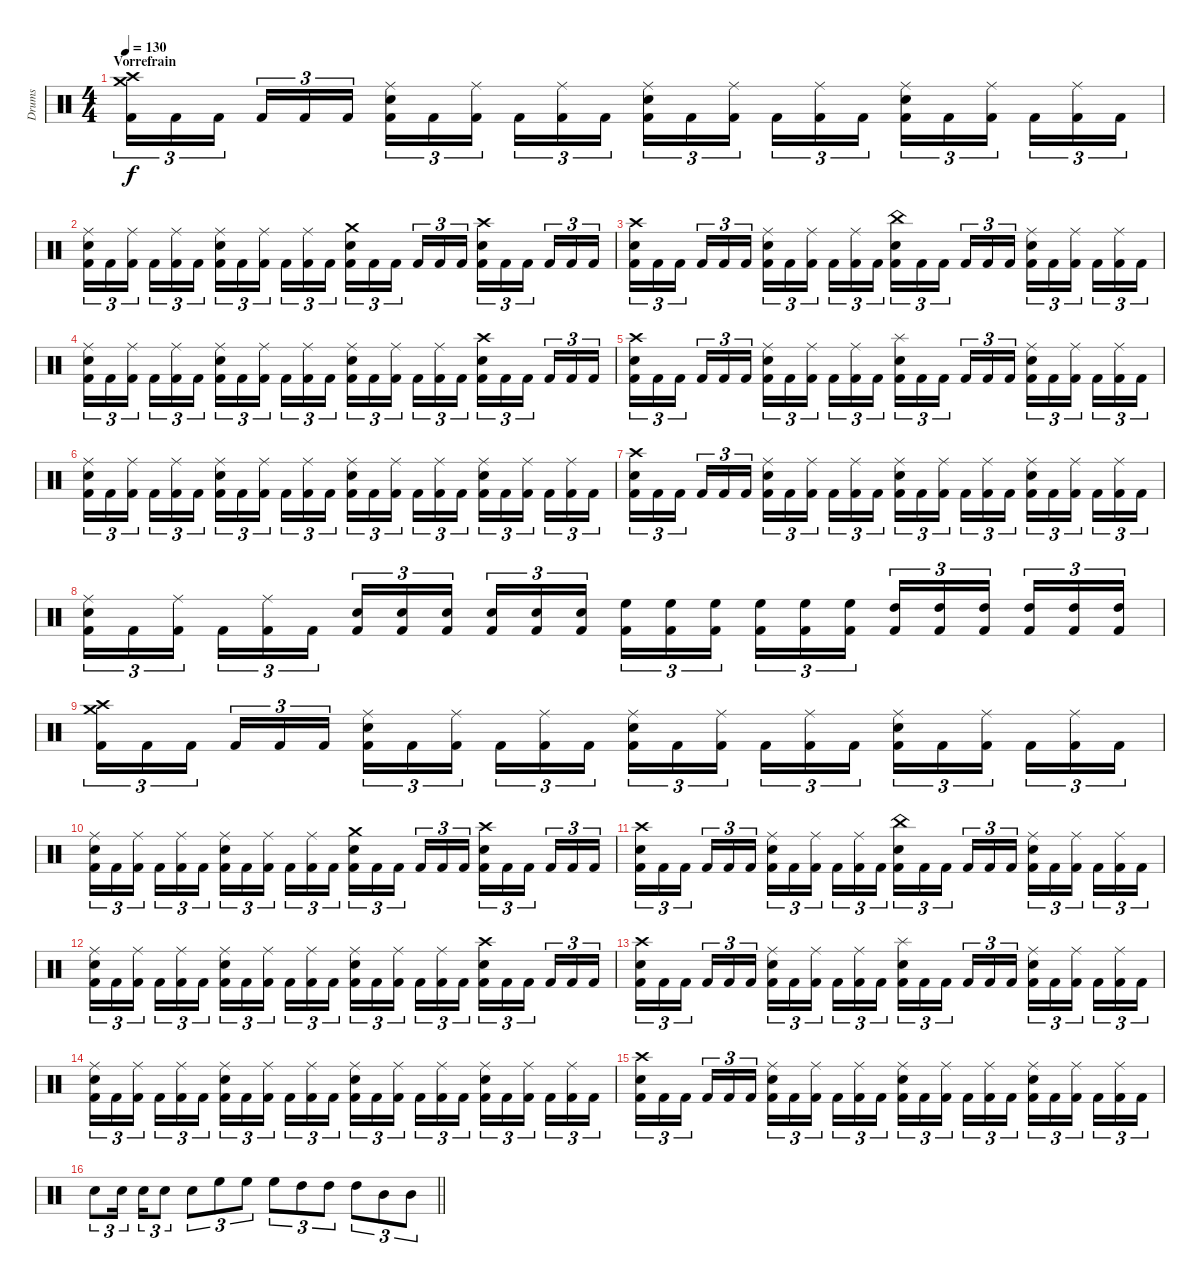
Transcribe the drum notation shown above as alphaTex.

\track ("Drums" "Drums") {instrument percussion}
\staff {score}
\articulation defaults
\ts (4 4)
\section ("" "Vorrefrain")
\tempo 130
\clef neutral
\ks c
("Crash medium (hit)" "Crash high (hit)" "Kick (hit) 2").16{tu (3 2) dy f} "Kick (hit) 2".16{tu (3 2)} "Kick (hit) 2".16{tu (3 2) beam splitsecondary} "Kick (hit) 2".16{tu (3 2)} "Kick (hit) 2".16{tu (3 2)} "Kick (hit) 2".16{tu (3 2)} ("Ride (middle)" "Electric Snare (hit)" "Kick (hit) 2").16{tu (3 2)} "Kick (hit) 2".16{tu (3 2)} ("Ride (middle)" "Kick (hit) 2").16{tu (3 2) beam splitsecondary} "Kick (hit) 2".16{tu (3 2)} ("Ride (middle)" "Kick (hit) 2").16{tu (3 2)} "Kick (hit) 2".16{tu (3 2)} ("Ride (middle)" "Electric Snare (hit)" "Kick (hit) 2").16{tu (3 2)} "Kick (hit) 2".16{tu (3 2)} ("Ride (middle)" "Kick (hit) 2").16{tu (3 2) beam splitsecondary} "Kick (hit) 2".16{tu (3 2)} ("Ride (middle)" "Kick (hit) 2").16{tu (3 2)} "Kick (hit) 2".16{tu (3 2)} ("Ride (middle)" "Electric Snare (hit)" "Kick (hit) 2").16{tu (3 2)} "Kick (hit) 2".16{tu (3 2)} ("Ride (middle)" "Kick (hit) 2").16{tu (3 2) beam splitsecondary} "Kick (hit) 2".16{tu (3 2)} ("Ride (middle)" "Kick (hit) 2").16{tu (3 2)} "Kick (hit) 2".16{tu (3 2)} |
("Ride (middle)" "Electric Snare (hit)" "Kick (hit) 2").16{tu (3 2)} "Kick (hit) 2".16{tu (3 2)} ("Ride (middle)" "Kick (hit) 2").16{tu (3 2) beam splitsecondary} "Kick (hit) 2".16{tu (3 2)} ("Ride (middle)" "Kick (hit) 2").16{tu (3 2)} "Kick (hit) 2".16{tu (3 2)} ("Ride (middle)" "Electric Snare (hit)" "Kick (hit) 2").16{tu (3 2)} "Kick (hit) 2".16{tu (3 2)} ("Ride (middle)" "Kick (hit) 2").16{tu (3 2) beam splitsecondary} "Kick (hit) 2".16{tu (3 2)} ("Ride (middle)" "Kick (hit) 2").16{tu (3 2)} "Kick (hit) 2".16{tu (3 2)} ("Crash medium (hit)" "Electric Snare (hit)" "Kick (hit) 2").16{tu (3 2)} "Kick (hit) 2".16{tu (3 2)} "Kick (hit) 2".16{tu (3 2) beam splitsecondary} "Kick (hit) 2".16{tu (3 2)} "Kick (hit) 2".16{tu (3 2)} "Kick (hit) 2".16{tu (3 2)} ("Crash high (hit)" "Electric Snare (hit)" "Kick (hit) 2").16{tu (3 2)} "Kick (hit) 2".16{tu (3 2)} "Kick (hit) 2".16{tu (3 2) beam splitsecondary} "Kick (hit) 2".16{tu (3 2)} "Kick (hit) 2".16{tu (3 2)} "Kick (hit) 2".16{tu (3 2)} |
("Crash high (hit)" "Electric Snare (hit)" "Kick (hit) 2").16{tu (3 2)} "Kick (hit) 2".16{tu (3 2)} "Kick (hit) 2".16{tu (3 2) beam splitsecondary} "Kick (hit) 2".16{tu (3 2)} "Kick (hit) 2".16{tu (3 2)} "Kick (hit) 2".16{tu (3 2)} ("Ride (middle)" "Electric Snare (hit)" "Kick (hit) 2").16{tu (3 2)} "Kick (hit) 2".16{tu (3 2)} ("Ride (middle)" "Kick (hit) 2").16{tu (3 2) beam splitsecondary} "Kick (hit) 2".16{tu (3 2)} ("Ride (middle)" "Kick (hit) 2").16{tu (3 2)} "Kick (hit) 2".16{tu (3 2)} ("China (hit)" "Electric Snare (hit)" "Kick (hit) 2").16{tu (3 2)} "Kick (hit) 2".16{tu (3 2)} "Kick (hit) 2".16{tu (3 2) beam splitsecondary} "Kick (hit) 2".16{tu (3 2)} "Kick (hit) 2".16{tu (3 2)} "Kick (hit) 2".16{tu (3 2)} ("Ride (middle)" "Electric Snare (hit)" "Kick (hit) 2").16{tu (3 2)} "Kick (hit) 2".16{tu (3 2)} ("Ride (middle)" "Kick (hit) 2").16{tu (3 2) beam splitsecondary} "Kick (hit) 2".16{tu (3 2)} ("Ride (middle)" "Kick (hit) 2").16{tu (3 2)} "Kick (hit) 2".16{tu (3 2)} |
("Ride (middle)" "Electric Snare (hit)" "Kick (hit) 2").16{tu (3 2)} "Kick (hit) 2".16{tu (3 2)} ("Ride (middle)" "Kick (hit) 2").16{tu (3 2) beam splitsecondary} "Kick (hit) 2".16{tu (3 2)} ("Ride (middle)" "Kick (hit) 2").16{tu (3 2)} "Kick (hit) 2".16{tu (3 2)} ("Ride (middle)" "Electric Snare (hit)" "Kick (hit) 2").16{tu (3 2)} "Kick (hit) 2".16{tu (3 2)} ("Ride (middle)" "Kick (hit) 2").16{tu (3 2) beam splitsecondary} "Kick (hit) 2".16{tu (3 2)} ("Ride (middle)" "Kick (hit) 2").16{tu (3 2)} "Kick (hit) 2".16{tu (3 2)} ("Ride (middle)" "Electric Snare (hit)" "Kick (hit) 2").16{tu (3 2)} "Kick (hit) 2".16{tu (3 2)} ("Ride (middle)" "Kick (hit) 2").16{tu (3 2) beam splitsecondary} "Kick (hit) 2".16{tu (3 2)} ("Ride (middle)" "Kick (hit) 2").16{tu (3 2)} "Kick (hit) 2".16{tu (3 2)} ("Crash high (hit)" "Electric Snare (hit)" "Kick (hit) 2").16{tu (3 2)} "Kick (hit) 2".16{tu (3 2)} "Kick (hit) 2".16{tu (3 2) beam splitsecondary} "Kick (hit) 2".16{tu (3 2)} "Kick (hit) 2".16{tu (3 2)} "Kick (hit) 2".16{tu (3 2)} |
("Crash high (hit)" "Electric Snare (hit)" "Kick (hit) 2").16{tu (3 2)} "Kick (hit) 2".16{tu (3 2)} "Kick (hit) 2".16{tu (3 2) beam splitsecondary} "Kick (hit) 2".16{tu (3 2)} "Kick (hit) 2".16{tu (3 2)} "Kick (hit) 2".16{tu (3 2)} ("Ride (middle)" "Electric Snare (hit)" "Kick (hit) 2").16{tu (3 2)} "Kick (hit) 2".16{tu (3 2)} ("Ride (middle)" "Kick (hit) 2").16{tu (3 2) beam splitsecondary} "Kick (hit) 2".16{tu (3 2)} ("Ride (middle)" "Kick (hit) 2").16{tu (3 2)} "Kick (hit) 2".16{tu (3 2)} ("Splash (hit)" "Electric Snare (hit)" "Kick (hit) 2").16{tu (3 2)} "Kick (hit) 2".16{tu (3 2)} "Kick (hit) 2".16{tu (3 2) beam splitsecondary} "Kick (hit) 2".16{tu (3 2)} "Kick (hit) 2".16{tu (3 2)} "Kick (hit) 2".16{tu (3 2)} ("Ride (middle)" "Electric Snare (hit)" "Kick (hit) 2").16{tu (3 2)} "Kick (hit) 2".16{tu (3 2)} ("Ride (middle)" "Kick (hit) 2").16{tu (3 2) beam splitsecondary} "Kick (hit) 2".16{tu (3 2)} ("Ride (middle)" "Kick (hit) 2").16{tu (3 2)} "Kick (hit) 2".16{tu (3 2)} |
("Ride (middle)" "Electric Snare (hit)" "Kick (hit) 2").16{tu (3 2)} "Kick (hit) 2".16{tu (3 2)} ("Ride (middle)" "Kick (hit) 2").16{tu (3 2) beam splitsecondary} "Kick (hit) 2".16{tu (3 2)} ("Ride (middle)" "Kick (hit) 2").16{tu (3 2)} "Kick (hit) 2".16{tu (3 2)} ("Ride (middle)" "Electric Snare (hit)" "Kick (hit) 2").16{tu (3 2)} "Kick (hit) 2".16{tu (3 2)} ("Ride (middle)" "Kick (hit) 2").16{tu (3 2) beam splitsecondary} "Kick (hit) 2".16{tu (3 2)} ("Ride (middle)" "Kick (hit) 2").16{tu (3 2)} "Kick (hit) 2".16{tu (3 2)} ("Ride (middle)" "Electric Snare (hit)" "Kick (hit) 2").16{tu (3 2)} "Kick (hit) 2".16{tu (3 2)} ("Ride (middle)" "Kick (hit) 2").16{tu (3 2) beam splitsecondary} "Kick (hit) 2".16{tu (3 2)} ("Ride (middle)" "Kick (hit) 2").16{tu (3 2)} "Kick (hit) 2".16{tu (3 2)} ("Ride (middle)" "Electric Snare (hit)" "Kick (hit) 2").16{tu (3 2)} "Kick (hit) 2".16{tu (3 2)} ("Ride (middle)" "Kick (hit) 2").16{tu (3 2) beam splitsecondary} "Kick (hit) 2".16{tu (3 2)} ("Ride (middle)" "Kick (hit) 2").16{tu (3 2)} "Kick (hit) 2".16{tu (3 2)} |
("Crash high (hit)" "Electric Snare (hit)" "Kick (hit) 2").16{tu (3 2)} "Kick (hit) 2".16{tu (3 2)} "Kick (hit) 2".16{tu (3 2) beam splitsecondary} "Kick (hit) 2".16{tu (3 2)} "Kick (hit) 2".16{tu (3 2)} "Kick (hit) 2".16{tu (3 2)} ("Ride (middle)" "Electric Snare (hit)" "Kick (hit) 2").16{tu (3 2)} "Kick (hit) 2".16{tu (3 2)} ("Ride (middle)" "Kick (hit) 2").16{tu (3 2) beam splitsecondary} "Kick (hit) 2".16{tu (3 2)} ("Ride (middle)" "Kick (hit) 2").16{tu (3 2)} "Kick (hit) 2".16{tu (3 2)} ("Ride (middle)" "Electric Snare (hit)" "Kick (hit) 2").16{tu (3 2)} "Kick (hit) 2".16{tu (3 2)} ("Ride (middle)" "Kick (hit) 2").16{tu (3 2) beam splitsecondary} "Kick (hit) 2".16{tu (3 2)} ("Ride (middle)" "Kick (hit) 2").16{tu (3 2)} "Kick (hit) 2".16{tu (3 2)} ("Ride (middle)" "Electric Snare (hit)" "Kick (hit) 2").16{tu (3 2)} "Kick (hit) 2".16{tu (3 2)} ("Ride (middle)" "Kick (hit) 2").16{tu (3 2) beam splitsecondary} "Kick (hit) 2".16{tu (3 2)} ("Ride (middle)" "Kick (hit) 2").16{tu (3 2)} "Kick (hit) 2".16{tu (3 2)} |
("Ride (middle)" "Electric Snare (hit)" "Kick (hit) 2").16{tu (3 2)} "Kick (hit) 2".16{tu (3 2)} ("Ride (middle)" "Kick (hit) 2").16{tu (3 2) beam splitsecondary} "Kick (hit) 2".16{tu (3 2)} ("Ride (middle)" "Kick (hit) 2").16{tu (3 2)} "Kick (hit) 2".16{tu (3 2)} ("Electric Snare (hit)" "Kick (hit) 2").16{tu (3 2)} ("Electric Snare (hit)" "Kick (hit) 2").16{tu (3 2)} ("Electric Snare (hit)" "Kick (hit) 2").16{tu (3 2) beam splitsecondary} ("Electric Snare (hit)" "Kick (hit) 2").16{tu (3 2)} ("Electric Snare (hit)" "Kick (hit) 2").16{tu (3 2)} ("Electric Snare (hit)" "Kick (hit) 2").16{tu (3 2)} ("High Floor Tom (hit)" "Kick (hit) 2").16{tu (3 2)} ("High Floor Tom (hit)" "Kick (hit) 2").16{tu (3 2)} ("High Floor Tom (hit)" "Kick (hit) 2").16{tu (3 2) beam splitsecondary} ("High Floor Tom (hit)" "Kick (hit) 2").16{tu (3 2)} ("High Floor Tom (hit)" "Kick (hit) 2").16{tu (3 2)} ("High Floor Tom (hit)" "Kick (hit) 2").16{tu (3 2)} ("High Tom (hit)" "Kick (hit) 2").16{tu (3 2)} ("High Tom (hit)" "Kick (hit) 2").16{tu (3 2)} ("High Tom (hit)" "Kick (hit) 2").16{tu (3 2) beam splitsecondary} ("High Tom (hit)" "Kick (hit) 2").16{tu (3 2)} ("High Tom (hit)" "Kick (hit) 2").16{tu (3 2)} ("High Tom (hit)" "Kick (hit) 2").16{tu (3 2)} |
("Crash medium (hit)" "Crash high (hit)" "Kick (hit) 2").16{tu (3 2)} "Kick (hit) 2".16{tu (3 2)} "Kick (hit) 2".16{tu (3 2) beam splitsecondary} "Kick (hit) 2".16{tu (3 2)} "Kick (hit) 2".16{tu (3 2)} "Kick (hit) 2".16{tu (3 2)} ("Ride (middle)" "Electric Snare (hit)" "Kick (hit) 2").16{tu (3 2)} "Kick (hit) 2".16{tu (3 2)} ("Ride (middle)" "Kick (hit) 2").16{tu (3 2) beam splitsecondary} "Kick (hit) 2".16{tu (3 2)} ("Ride (middle)" "Kick (hit) 2").16{tu (3 2)} "Kick (hit) 2".16{tu (3 2)} ("Ride (middle)" "Electric Snare (hit)" "Kick (hit) 2").16{tu (3 2)} "Kick (hit) 2".16{tu (3 2)} ("Ride (middle)" "Kick (hit) 2").16{tu (3 2) beam splitsecondary} "Kick (hit) 2".16{tu (3 2)} ("Ride (middle)" "Kick (hit) 2").16{tu (3 2)} "Kick (hit) 2".16{tu (3 2)} ("Ride (middle)" "Electric Snare (hit)" "Kick (hit) 2").16{tu (3 2)} "Kick (hit) 2".16{tu (3 2)} ("Ride (middle)" "Kick (hit) 2").16{tu (3 2) beam splitsecondary} "Kick (hit) 2".16{tu (3 2)} ("Ride (middle)" "Kick (hit) 2").16{tu (3 2)} "Kick (hit) 2".16{tu (3 2)} |
("Ride (middle)" "Electric Snare (hit)" "Kick (hit) 2").16{tu (3 2)} "Kick (hit) 2".16{tu (3 2)} ("Ride (middle)" "Kick (hit) 2").16{tu (3 2) beam splitsecondary} "Kick (hit) 2".16{tu (3 2)} ("Ride (middle)" "Kick (hit) 2").16{tu (3 2)} "Kick (hit) 2".16{tu (3 2)} ("Ride (middle)" "Electric Snare (hit)" "Kick (hit) 2").16{tu (3 2)} "Kick (hit) 2".16{tu (3 2)} ("Ride (middle)" "Kick (hit) 2").16{tu (3 2) beam splitsecondary} "Kick (hit) 2".16{tu (3 2)} ("Ride (middle)" "Kick (hit) 2").16{tu (3 2)} "Kick (hit) 2".16{tu (3 2)} ("Crash medium (hit)" "Electric Snare (hit)" "Kick (hit) 2").16{tu (3 2)} "Kick (hit) 2".16{tu (3 2)} "Kick (hit) 2".16{tu (3 2) beam splitsecondary} "Kick (hit) 2".16{tu (3 2)} "Kick (hit) 2".16{tu (3 2)} "Kick (hit) 2".16{tu (3 2)} ("Crash high (hit)" "Electric Snare (hit)" "Kick (hit) 2").16{tu (3 2)} "Kick (hit) 2".16{tu (3 2)} "Kick (hit) 2".16{tu (3 2) beam splitsecondary} "Kick (hit) 2".16{tu (3 2)} "Kick (hit) 2".16{tu (3 2)} "Kick (hit) 2".16{tu (3 2)} |
("Crash high (hit)" "Electric Snare (hit)" "Kick (hit) 2").16{tu (3 2)} "Kick (hit) 2".16{tu (3 2)} "Kick (hit) 2".16{tu (3 2) beam splitsecondary} "Kick (hit) 2".16{tu (3 2)} "Kick (hit) 2".16{tu (3 2)} "Kick (hit) 2".16{tu (3 2)} ("Ride (middle)" "Electric Snare (hit)" "Kick (hit) 2").16{tu (3 2)} "Kick (hit) 2".16{tu (3 2)} ("Ride (middle)" "Kick (hit) 2").16{tu (3 2) beam splitsecondary} "Kick (hit) 2".16{tu (3 2)} ("Ride (middle)" "Kick (hit) 2").16{tu (3 2)} "Kick (hit) 2".16{tu (3 2)} ("China (hit)" "Electric Snare (hit)" "Kick (hit) 2").16{tu (3 2)} "Kick (hit) 2".16{tu (3 2)} "Kick (hit) 2".16{tu (3 2) beam splitsecondary} "Kick (hit) 2".16{tu (3 2)} "Kick (hit) 2".16{tu (3 2)} "Kick (hit) 2".16{tu (3 2)} ("Ride (middle)" "Electric Snare (hit)" "Kick (hit) 2").16{tu (3 2)} "Kick (hit) 2".16{tu (3 2)} ("Ride (middle)" "Kick (hit) 2").16{tu (3 2) beam splitsecondary} "Kick (hit) 2".16{tu (3 2)} ("Ride (middle)" "Kick (hit) 2").16{tu (3 2)} "Kick (hit) 2".16{tu (3 2)} |
("Ride (middle)" "Electric Snare (hit)" "Kick (hit) 2").16{tu (3 2)} "Kick (hit) 2".16{tu (3 2)} ("Ride (middle)" "Kick (hit) 2").16{tu (3 2) beam splitsecondary} "Kick (hit) 2".16{tu (3 2)} ("Ride (middle)" "Kick (hit) 2").16{tu (3 2)} "Kick (hit) 2".16{tu (3 2)} ("Ride (middle)" "Electric Snare (hit)" "Kick (hit) 2").16{tu (3 2)} "Kick (hit) 2".16{tu (3 2)} ("Ride (middle)" "Kick (hit) 2").16{tu (3 2) beam splitsecondary} "Kick (hit) 2".16{tu (3 2)} ("Ride (middle)" "Kick (hit) 2").16{tu (3 2)} "Kick (hit) 2".16{tu (3 2)} ("Ride (middle)" "Electric Snare (hit)" "Kick (hit) 2").16{tu (3 2)} "Kick (hit) 2".16{tu (3 2)} ("Ride (middle)" "Kick (hit) 2").16{tu (3 2) beam splitsecondary} "Kick (hit) 2".16{tu (3 2)} ("Ride (middle)" "Kick (hit) 2").16{tu (3 2)} "Kick (hit) 2".16{tu (3 2)} ("Crash high (hit)" "Electric Snare (hit)" "Kick (hit) 2").16{tu (3 2)} "Kick (hit) 2".16{tu (3 2)} "Kick (hit) 2".16{tu (3 2) beam splitsecondary} "Kick (hit) 2".16{tu (3 2)} "Kick (hit) 2".16{tu (3 2)} "Kick (hit) 2".16{tu (3 2)} |
("Crash high (hit)" "Electric Snare (hit)" "Kick (hit) 2").16{tu (3 2)} "Kick (hit) 2".16{tu (3 2)} "Kick (hit) 2".16{tu (3 2) beam splitsecondary} "Kick (hit) 2".16{tu (3 2)} "Kick (hit) 2".16{tu (3 2)} "Kick (hit) 2".16{tu (3 2)} ("Ride (middle)" "Electric Snare (hit)" "Kick (hit) 2").16{tu (3 2)} "Kick (hit) 2".16{tu (3 2)} ("Ride (middle)" "Kick (hit) 2").16{tu (3 2) beam splitsecondary} "Kick (hit) 2".16{tu (3 2)} ("Ride (middle)" "Kick (hit) 2").16{tu (3 2)} "Kick (hit) 2".16{tu (3 2)} ("Splash (hit)" "Electric Snare (hit)" "Kick (hit) 2").16{tu (3 2)} "Kick (hit) 2".16{tu (3 2)} "Kick (hit) 2".16{tu (3 2) beam splitsecondary} "Kick (hit) 2".16{tu (3 2)} "Kick (hit) 2".16{tu (3 2)} "Kick (hit) 2".16{tu (3 2)} ("Ride (middle)" "Electric Snare (hit)" "Kick (hit) 2").16{tu (3 2)} "Kick (hit) 2".16{tu (3 2)} ("Ride (middle)" "Kick (hit) 2").16{tu (3 2) beam splitsecondary} "Kick (hit) 2".16{tu (3 2)} ("Ride (middle)" "Kick (hit) 2").16{tu (3 2)} "Kick (hit) 2".16{tu (3 2)} |
("Ride (middle)" "Electric Snare (hit)" "Kick (hit) 2").16{tu (3 2)} "Kick (hit) 2".16{tu (3 2)} ("Ride (middle)" "Kick (hit) 2").16{tu (3 2) beam splitsecondary} "Kick (hit) 2".16{tu (3 2)} ("Ride (middle)" "Kick (hit) 2").16{tu (3 2)} "Kick (hit) 2".16{tu (3 2)} ("Ride (middle)" "Electric Snare (hit)" "Kick (hit) 2").16{tu (3 2)} "Kick (hit) 2".16{tu (3 2)} ("Ride (middle)" "Kick (hit) 2").16{tu (3 2) beam splitsecondary} "Kick (hit) 2".16{tu (3 2)} ("Ride (middle)" "Kick (hit) 2").16{tu (3 2)} "Kick (hit) 2".16{tu (3 2)} ("Ride (middle)" "Electric Snare (hit)" "Kick (hit) 2").16{tu (3 2)} "Kick (hit) 2".16{tu (3 2)} ("Ride (middle)" "Kick (hit) 2").16{tu (3 2) beam splitsecondary} "Kick (hit) 2".16{tu (3 2)} ("Ride (middle)" "Kick (hit) 2").16{tu (3 2)} "Kick (hit) 2".16{tu (3 2)} ("Ride (middle)" "Electric Snare (hit)" "Kick (hit) 2").16{tu (3 2)} "Kick (hit) 2".16{tu (3 2)} ("Ride (middle)" "Kick (hit) 2").16{tu (3 2) beam splitsecondary} "Kick (hit) 2".16{tu (3 2)} ("Ride (middle)" "Kick (hit) 2").16{tu (3 2)} "Kick (hit) 2".16{tu (3 2)} |
("Crash high (hit)" "Electric Snare (hit)" "Kick (hit) 2").16{tu (3 2)} "Kick (hit) 2".16{tu (3 2)} "Kick (hit) 2".16{tu (3 2) beam splitsecondary} "Kick (hit) 2".16{tu (3 2)} "Kick (hit) 2".16{tu (3 2)} "Kick (hit) 2".16{tu (3 2)} ("Ride (middle)" "Electric Snare (hit)" "Kick (hit) 2").16{tu (3 2)} "Kick (hit) 2".16{tu (3 2)} ("Ride (middle)" "Kick (hit) 2").16{tu (3 2) beam splitsecondary} "Kick (hit) 2".16{tu (3 2)} ("Ride (middle)" "Kick (hit) 2").16{tu (3 2)} "Kick (hit) 2".16{tu (3 2)} ("Ride (middle)" "Electric Snare (hit)" "Kick (hit) 2").16{tu (3 2)} "Kick (hit) 2".16{tu (3 2)} ("Ride (middle)" "Kick (hit) 2").16{tu (3 2) beam splitsecondary} "Kick (hit) 2".16{tu (3 2)} ("Ride (middle)" "Kick (hit) 2").16{tu (3 2)} "Kick (hit) 2".16{tu (3 2)} ("Ride (middle)" "Electric Snare (hit)" "Kick (hit) 2").16{tu (3 2)} "Kick (hit) 2".16{tu (3 2)} ("Ride (middle)" "Kick (hit) 2").16{tu (3 2) beam splitsecondary} "Kick (hit) 2".16{tu (3 2)} ("Ride (middle)" "Kick (hit) 2").16{tu (3 2)} "Kick (hit) 2".16{tu (3 2)} |
\barLineRight lightlight "Electric Snare (hit)".8{tu (3 2)} "Electric Snare (hit)".16{tu (3 2) beam splitsecondary} "Electric Snare (hit)".16{tu (3 2)} "Electric Snare (hit)".8{tu (3 2)} "Electric Snare (hit)".8{tu (3 2)} "High Floor Tom (hit)".8{tu (3 2)} "High Floor Tom (hit)".8{tu (3 2)} "High Floor Tom (hit)".8{tu (3 2)} "High Tom (hit)".8{tu (3 2)} "High Tom (hit)".8{tu (3 2)} "High Tom (hit)".8{tu (3 2)} "Mid Tom (hit)".8{tu (3 2)} "Mid Tom (hit)".8{tu (3 2)}
